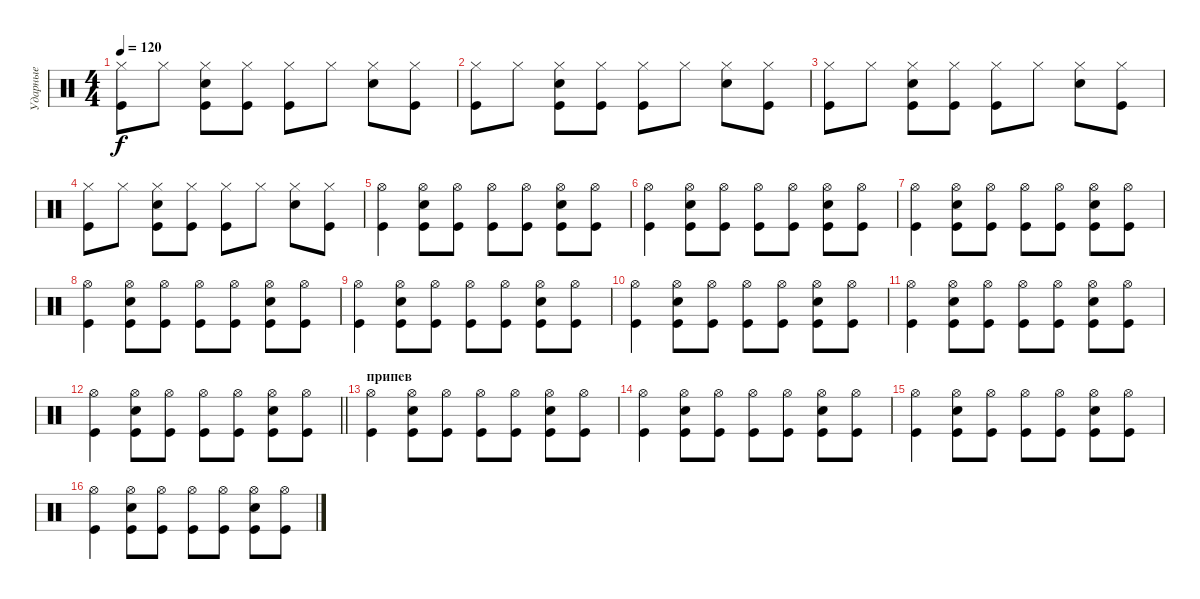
\track ("Ударные" "Ударные") {instrument percussion}
\staff {score}
\articulation defaults
\ts (4 4)
\tempo 120
\clef neutral
\ks c
("Hi-Hat (closed)" "Kick (hit)").8{dy f} "Hi-Hat (closed)".8 ("Hi-Hat (closed)" "Snare (hit) 2" "Kick (hit)").8 ("Hi-Hat (closed)" "Kick (hit)").8 ("Hi-Hat (closed)" "Kick (hit)").8 "Hi-Hat (closed)".8 ("Hi-Hat (closed)" "Snare (hit) 2").8 ("Hi-Hat (closed)" "Kick (hit)").8 |
("Hi-Hat (closed)" "Kick (hit)").8 "Hi-Hat (closed)".8 ("Hi-Hat (closed)" "Snare (hit) 2" "Kick (hit)").8 ("Hi-Hat (closed)" "Kick (hit)").8 ("Hi-Hat (closed)" "Kick (hit)").8 "Hi-Hat (closed)".8 ("Hi-Hat (closed)" "Snare (hit) 2").8 ("Hi-Hat (closed)" "Kick (hit)").8 |
("Hi-Hat (closed)" "Kick (hit)").8 "Hi-Hat (closed)".8 ("Hi-Hat (closed)" "Snare (hit) 2" "Kick (hit)").8 ("Hi-Hat (closed)" "Kick (hit)").8 ("Hi-Hat (closed)" "Kick (hit)").8 "Hi-Hat (closed)".8 ("Hi-Hat (closed)" "Snare (hit) 2").8 ("Hi-Hat (closed)" "Kick (hit)").8 |
("Hi-Hat (closed)" "Kick (hit)").8 "Hi-Hat (closed)".8 ("Hi-Hat (closed)" "Snare (hit) 2" "Kick (hit)").8 ("Hi-Hat (closed)" "Kick (hit)").8 ("Hi-Hat (closed)" "Kick (hit)").8 "Hi-Hat (closed)".8 ("Hi-Hat (closed)" "Snare (hit) 2").8 ("Hi-Hat (closed)" "Kick (hit)").8 |
("Hi-Hat (open)" "Kick (hit)").4 ("Hi-Hat (open)" "Snare (hit) 2" "Kick (hit)").8 ("Hi-Hat (open)" "Kick (hit)").8 ("Hi-Hat (open)" "Kick (hit)").8 ("Hi-Hat (open)" "Kick (hit)").8 ("Hi-Hat (open)" "Snare (hit) 2" "Kick (hit)").8 ("Hi-Hat (open)" "Kick (hit)").8 |
("Hi-Hat (open)" "Kick (hit)").4 ("Hi-Hat (open)" "Snare (hit) 2" "Kick (hit)").8 ("Hi-Hat (open)" "Kick (hit)").8 ("Hi-Hat (open)" "Kick (hit)").8 ("Hi-Hat (open)" "Kick (hit)").8 ("Hi-Hat (open)" "Snare (hit) 2" "Kick (hit)").8 ("Hi-Hat (open)" "Kick (hit)").8 |
("Hi-Hat (open)" "Kick (hit)").4 ("Hi-Hat (open)" "Snare (hit) 2" "Kick (hit)").8 ("Hi-Hat (open)" "Kick (hit)").8 ("Hi-Hat (open)" "Kick (hit)").8 ("Hi-Hat (open)" "Kick (hit)").8 ("Hi-Hat (open)" "Snare (hit) 2" "Kick (hit)").8 ("Hi-Hat (open)" "Kick (hit)").8 |
("Hi-Hat (open)" "Kick (hit)").4 ("Hi-Hat (open)" "Snare (hit) 2" "Kick (hit)").8 ("Hi-Hat (open)" "Kick (hit)").8 ("Hi-Hat (open)" "Kick (hit)").8 ("Hi-Hat (open)" "Kick (hit)").8 ("Hi-Hat (open)" "Snare (hit) 2" "Kick (hit)").8 ("Hi-Hat (open)" "Kick (hit)").8 |
("Hi-Hat (open)" "Kick (hit)").4 ("Hi-Hat (open)" "Snare (hit) 2" "Kick (hit)").8 ("Hi-Hat (open)" "Kick (hit)").8 ("Hi-Hat (open)" "Kick (hit)").8 ("Hi-Hat (open)" "Kick (hit)").8 ("Hi-Hat (open)" "Snare (hit) 2" "Kick (hit)").8 ("Hi-Hat (open)" "Kick (hit)").8 |
("Hi-Hat (open)" "Kick (hit)").4 ("Hi-Hat (open)" "Snare (hit) 2" "Kick (hit)").8 ("Hi-Hat (open)" "Kick (hit)").8 ("Hi-Hat (open)" "Kick (hit)").8 ("Hi-Hat (open)" "Kick (hit)").8 ("Hi-Hat (open)" "Snare (hit) 2" "Kick (hit)").8 ("Hi-Hat (open)" "Kick (hit)").8 |
("Hi-Hat (open)" "Kick (hit)").4 ("Hi-Hat (open)" "Snare (hit) 2" "Kick (hit)").8 ("Hi-Hat (open)" "Kick (hit)").8 ("Hi-Hat (open)" "Kick (hit)").8 ("Hi-Hat (open)" "Kick (hit)").8 ("Hi-Hat (open)" "Snare (hit) 2" "Kick (hit)").8 ("Hi-Hat (open)" "Kick (hit)").8 |
\barLineRight lightlight
("Hi-Hat (open)" "Kick (hit)").4 ("Hi-Hat (open)" "Snare (hit) 2" "Kick (hit)").8 ("Hi-Hat (open)" "Kick (hit)").8 ("Hi-Hat (open)" "Kick (hit)").8 ("Hi-Hat (open)" "Kick (hit)").8 ("Hi-Hat (open)" "Snare (hit) 2" "Kick (hit)").8 ("Hi-Hat (open)" "Kick (hit)").8 |
\section ("" "припев")
("Hi-Hat (open)" "Kick (hit)").4 ("Hi-Hat (open)" "Snare (hit) 2" "Kick (hit)").8 ("Hi-Hat (open)" "Kick (hit)").8 ("Hi-Hat (open)" "Kick (hit)").8 ("Hi-Hat (open)" "Kick (hit)").8 ("Hi-Hat (open)" "Snare (hit) 2" "Kick (hit)").8 ("Hi-Hat (open)" "Kick (hit)").8 |
("Hi-Hat (open)" "Kick (hit)").4 ("Hi-Hat (open)" "Snare (hit) 2" "Kick (hit)").8 ("Hi-Hat (open)" "Kick (hit)").8 ("Hi-Hat (open)" "Kick (hit)").8 ("Hi-Hat (open)" "Kick (hit)").8 ("Hi-Hat (open)" "Snare (hit) 2" "Kick (hit)").8 ("Hi-Hat (open)" "Kick (hit)").8 |
("Hi-Hat (open)" "Kick (hit)").4 ("Hi-Hat (open)" "Snare (hit) 2" "Kick (hit)").8 ("Hi-Hat (open)" "Kick (hit)").8 ("Hi-Hat (open)" "Kick (hit)").8 ("Hi-Hat (open)" "Kick (hit)").8 ("Hi-Hat (open)" "Snare (hit) 2" "Kick (hit)").8 ("Hi-Hat (open)" "Kick (hit)").8 |
("Hi-Hat (open)" "Kick (hit)").4 ("Hi-Hat (open)" "Snare (hit) 2" "Kick (hit)").8 ("Hi-Hat (open)" "Kick (hit)").8 ("Hi-Hat (open)" "Kick (hit)").8 ("Hi-Hat (open)" "Kick (hit)").8 ("Hi-Hat (open)" "Snare (hit) 2" "Kick (hit)").8 ("Hi-Hat (open)" "Kick (hit)").8
